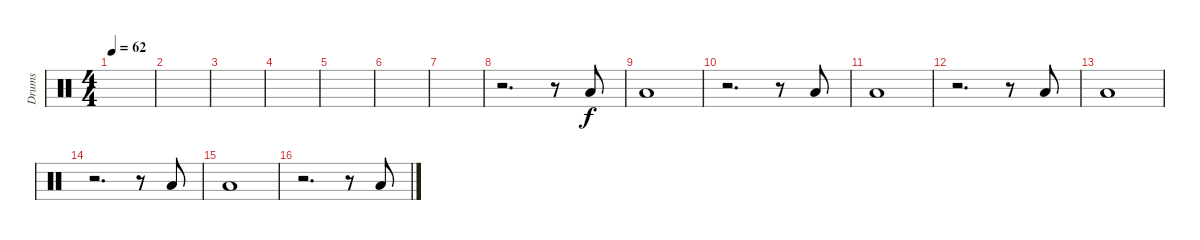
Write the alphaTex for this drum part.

\track ("Drums" "Drums") {instrument percussion}
\staff {score}
\articulation defaults
\ts (4 4)
\tempo 62
\clef neutral
\ks c
|
|
|
|
|
|
|
r.2{d} r.8 "Low Floor Tom (hit)".8 |
"Low Floor Tom (hit)".1 |
r.2{d} r.8 "Low Floor Tom (hit)".8 |
"Low Floor Tom (hit)".1 |
r.2{d} r.8 "Low Floor Tom (hit)".8 |
"Low Floor Tom (hit)".1 |
r.2{d} r.8 "Low Floor Tom (hit)".8 |
"Low Floor Tom (hit)".1 |
r.2{d} r.8 "Low Floor Tom (hit)".8
